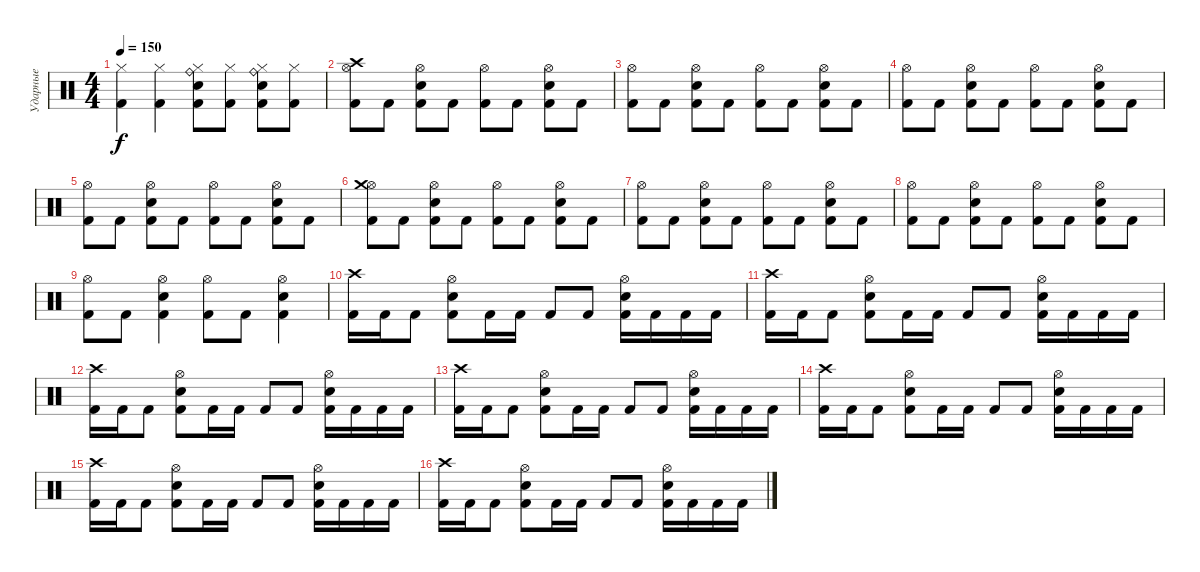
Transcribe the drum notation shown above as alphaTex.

\track ("Ударные" "Ударные") {instrument percussion}
\staff {score}
\articulation defaults
\ts (4 4)
\tempo 150
\clef neutral
\ks c
("Kick (hit) 2" "Hi-Hat (closed)").4{dy f} ("Kick (hit) 2" "Hi-Hat (closed)").4 ("Kick (hit) 2" "Hi-Hat (closed)" "Ride (bell)" "Snare (hit) 2").8 ("Kick (hit) 2" "Hi-Hat (closed)").8 ("Kick (hit) 2" "Hi-Hat (closed)" "Ride (bell)" "Snare (hit) 2").8 ("Kick (hit) 2" "Hi-Hat (closed)").8 |
("Kick (hit) 2" "Hi-Hat (open)" "Crash high (hit)").8 "Kick (hit) 2".8 ("Snare (hit) 2" "Kick (hit) 2" "Hi-Hat (open)").8 "Kick (hit) 2".8 ("Kick (hit) 2" "Hi-Hat (open)").8 "Kick (hit) 2".8 ("Snare (hit) 2" "Kick (hit) 2" "Hi-Hat (open)").8 "Kick (hit) 2".8 |
("Kick (hit) 2" "Hi-Hat (open)").8 "Kick (hit) 2".8 ("Snare (hit) 2" "Kick (hit) 2" "Hi-Hat (open)").8 "Kick (hit) 2".8 ("Kick (hit) 2" "Hi-Hat (open)").8 "Kick (hit) 2".8 ("Snare (hit) 2" "Kick (hit) 2" "Hi-Hat (open)").8 "Kick (hit) 2".8 |
("Kick (hit) 2" "Hi-Hat (open)").8 "Kick (hit) 2".8 ("Snare (hit) 2" "Kick (hit) 2" "Hi-Hat (open)").8 "Kick (hit) 2".8 ("Kick (hit) 2" "Hi-Hat (open)").8 "Kick (hit) 2".8 ("Snare (hit) 2" "Kick (hit) 2" "Hi-Hat (open)").8 "Kick (hit) 2".8 |
("Kick (hit) 2" "Hi-Hat (open)").8 "Kick (hit) 2".8 ("Snare (hit) 2" "Kick (hit) 2" "Hi-Hat (open)").8 "Kick (hit) 2".8 ("Kick (hit) 2" "Hi-Hat (open)").8 "Kick (hit) 2".8 ("Snare (hit) 2" "Kick (hit) 2" "Hi-Hat (open)").8 "Kick (hit) 2".8 |
("Kick (hit) 2" "Hi-Hat (open)" "Crash medium (hit)").8 "Kick (hit) 2".8 ("Snare (hit) 2" "Kick (hit) 2" "Hi-Hat (open)").8 "Kick (hit) 2".8 ("Kick (hit) 2" "Hi-Hat (open)").8 "Kick (hit) 2".8 ("Snare (hit) 2" "Kick (hit) 2" "Hi-Hat (open)").8 "Kick (hit) 2".8 |
("Kick (hit) 2" "Hi-Hat (open)").8 "Kick (hit) 2".8 ("Snare (hit) 2" "Kick (hit) 2" "Hi-Hat (open)").8 "Kick (hit) 2".8 ("Kick (hit) 2" "Hi-Hat (open)").8 "Kick (hit) 2".8 ("Snare (hit) 2" "Kick (hit) 2" "Hi-Hat (open)").8 "Kick (hit) 2".8 |
("Kick (hit) 2" "Hi-Hat (open)").8 "Kick (hit) 2".8 ("Snare (hit) 2" "Kick (hit) 2" "Hi-Hat (open)").8 "Kick (hit) 2".8 ("Kick (hit) 2" "Hi-Hat (open)").8 "Kick (hit) 2".8 ("Snare (hit) 2" "Kick (hit) 2" "Hi-Hat (open)").8 "Kick (hit) 2".8 |
("Kick (hit) 2" "Hi-Hat (open)").8 "Kick (hit) 2".8 ("Snare (hit) 2" "Kick (hit) 2" "Hi-Hat (open)").4 ("Kick (hit) 2" "Hi-Hat (open)").8 "Kick (hit) 2".8 ("Snare (hit) 2" "Kick (hit) 2" "Hi-Hat (open)").4 |
("Crash high (hit)" "Kick (hit) 2").16 "Kick (hit) 2".16 "Kick (hit) 2".8 ("Snare (hit) 2" "Hi-Hat (open)" "Kick (hit) 2").8 "Kick (hit) 2".16 "Kick (hit) 2".16 "Kick (hit) 2".8 "Kick (hit) 2".8 ("Snare (hit) 2" "Hi-Hat (open)" "Kick (hit) 2").16 "Kick (hit) 2".16 "Kick (hit) 2".16 "Kick (hit) 2".16 |
("Crash high (hit)" "Kick (hit) 2").16 "Kick (hit) 2".16 "Kick (hit) 2".8 ("Snare (hit) 2" "Hi-Hat (open)" "Kick (hit) 2").8 "Kick (hit) 2".16 "Kick (hit) 2".16 "Kick (hit) 2".8 "Kick (hit) 2".8 ("Snare (hit) 2" "Hi-Hat (open)" "Kick (hit) 2").16 "Kick (hit) 2".16 "Kick (hit) 2".16 "Kick (hit) 2".16 |
("Crash high (hit)" "Kick (hit) 2").16 "Kick (hit) 2".16 "Kick (hit) 2".8 ("Snare (hit) 2" "Hi-Hat (open)" "Kick (hit) 2").8 "Kick (hit) 2".16 "Kick (hit) 2".16 "Kick (hit) 2".8 "Kick (hit) 2".8 ("Snare (hit) 2" "Hi-Hat (open)" "Kick (hit) 2").16 "Kick (hit) 2".16 "Kick (hit) 2".16 "Kick (hit) 2".16 |
("Crash high (hit)" "Kick (hit) 2").16 "Kick (hit) 2".16 "Kick (hit) 2".8 ("Snare (hit) 2" "Hi-Hat (open)" "Kick (hit) 2").8 "Kick (hit) 2".16 "Kick (hit) 2".16 "Kick (hit) 2".8 "Kick (hit) 2".8 ("Snare (hit) 2" "Hi-Hat (open)" "Kick (hit) 2").16 "Kick (hit) 2".16 "Kick (hit) 2".16 "Kick (hit) 2".16 |
("Crash high (hit)" "Kick (hit) 2").16 "Kick (hit) 2".16 "Kick (hit) 2".8 ("Snare (hit) 2" "Hi-Hat (open)" "Kick (hit) 2").8 "Kick (hit) 2".16 "Kick (hit) 2".16 "Kick (hit) 2".8 "Kick (hit) 2".8 ("Snare (hit) 2" "Hi-Hat (open)" "Kick (hit) 2").16 "Kick (hit) 2".16 "Kick (hit) 2".16 "Kick (hit) 2".16 |
("Crash high (hit)" "Kick (hit) 2").16 "Kick (hit) 2".16 "Kick (hit) 2".8 ("Snare (hit) 2" "Hi-Hat (open)" "Kick (hit) 2").8 "Kick (hit) 2".16 "Kick (hit) 2".16 "Kick (hit) 2".8 "Kick (hit) 2".8 ("Snare (hit) 2" "Hi-Hat (open)" "Kick (hit) 2").16 "Kick (hit) 2".16 "Kick (hit) 2".16 "Kick (hit) 2".16 |
("Crash high (hit)" "Kick (hit) 2").16 "Kick (hit) 2".16 "Kick (hit) 2".8 ("Snare (hit) 2" "Hi-Hat (open)" "Kick (hit) 2").8 "Kick (hit) 2".16 "Kick (hit) 2".16 "Kick (hit) 2".8 "Kick (hit) 2".8 ("Snare (hit) 2" "Hi-Hat (open)" "Kick (hit) 2").16 "Kick (hit) 2".16 "Kick (hit) 2".16 "Kick (hit) 2".16
